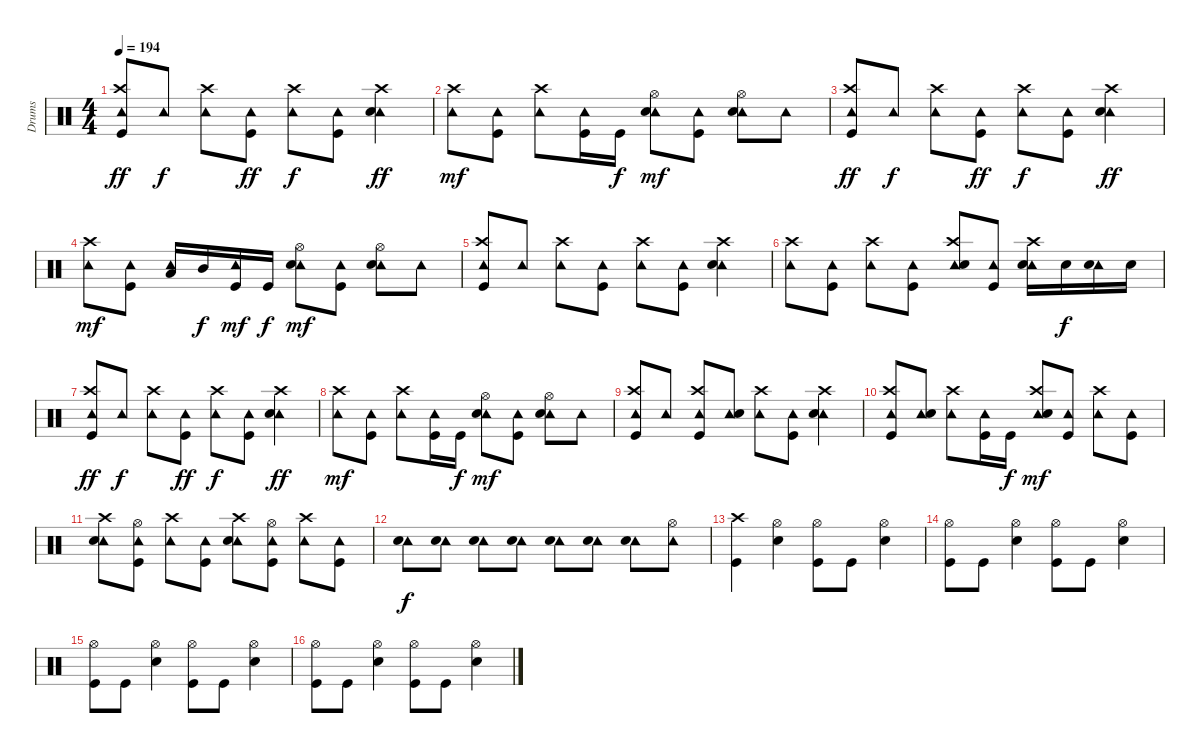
\track ("Drums" "Drums") {instrument percussion}
\staff {score}
\articulation defaults
\ts (4 4)
\tempo 194
\clef neutral
\ks c
("Tambourine (hit)" "Crash high (hit)" "Kick (hit)").8{dy ff} "Tambourine (hit)".8{dy f} ("Tambourine (hit)" "Crash high (hit)").8 ("Tambourine (hit)" "Kick (hit)").8{dy ff} ("Tambourine (hit)" "Crash high (hit)").8{dy f} ("Tambourine (hit)" "Kick (hit)").8 ("Tambourine (hit)" "Crash high (hit)" "Electric Snare (hit)").4{dy ff} |
("Tambourine (hit)" "Crash high (hit)").8{dy mf} ("Tambourine (hit)" "Kick (hit)").8 ("Tambourine (hit)" "Crash high (hit)").8 ("Tambourine (hit)" "Kick (hit)").16 "Kick (hit)".16{dy f} ("Tambourine (hit)" "Hi-Hat (open)" "Electric Snare (hit)").8{dy mf} ("Tambourine (hit)" "Kick (hit)").8 ("Tambourine (hit)" "Hi-Hat (open)" "Electric Snare (hit)").8 "Tambourine (hit)".8 |
("Tambourine (hit)" "Crash high (hit)" "Kick (hit)").8{dy ff} "Tambourine (hit)".8{dy f} ("Tambourine (hit)" "Crash high (hit)").8 ("Tambourine (hit)" "Kick (hit)").8{dy ff} ("Tambourine (hit)" "Crash high (hit)").8{dy f} ("Tambourine (hit)" "Kick (hit)").8 ("Tambourine (hit)" "Crash high (hit)" "Electric Snare (hit)").4{dy ff} |
("Tambourine (hit)" "Crash high (hit)").8{dy mf} ("Tambourine (hit)" "Kick (hit)").8 ("Tambourine (hit)" "Low Tom (hit)").16 "Mid Tom (hit)".16{dy f} ("Tambourine (hit)" "Kick (hit)").16{dy mf} "Kick (hit)".16{dy f} ("Tambourine (hit)" "Hi-Hat (open)" "Electric Snare (hit)").8{dy mf} ("Tambourine (hit)" "Kick (hit)").8 ("Tambourine (hit)" "Hi-Hat (open)" "Electric Snare (hit)").8 "Tambourine (hit)".8 |
("Tambourine (hit)" "Crash high (hit)" "Kick (hit)").8 "Tambourine (hit)".8 ("Tambourine (hit)" "Crash high (hit)").8 ("Tambourine (hit)" "Kick (hit)").8 ("Tambourine (hit)" "Crash high (hit)").8 ("Tambourine (hit)" "Kick (hit)").8 ("Tambourine (hit)" "Crash high (hit)" "Electric Snare (hit)").4 |
("Tambourine (hit)" "Crash high (hit)").8 ("Tambourine (hit)" "Kick (hit)").8 ("Tambourine (hit)" "Crash high (hit)").8 ("Tambourine (hit)" "Kick (hit)").8 ("Tambourine (hit)" "Crash high (hit)" "Electric Snare (hit)").8 ("Tambourine (hit)" "Kick (hit)").8 ("Tambourine (hit)" "Crash high (hit)" "Electric Snare (hit)").16 "Electric Snare (hit)".16{dy f} ("Tambourine (hit)" "Electric Snare (hit)").16 "Electric Snare (hit)".16 |
("Tambourine (hit)" "Crash high (hit)" "Kick (hit)").8{dy ff} "Tambourine (hit)".8{dy f} ("Tambourine (hit)" "Crash high (hit)").8 ("Tambourine (hit)" "Kick (hit)").8{dy ff} ("Tambourine (hit)" "Crash high (hit)").8{dy f} ("Tambourine (hit)" "Kick (hit)").8 ("Tambourine (hit)" "Crash high (hit)" "Electric Snare (hit)").4{dy ff} |
("Tambourine (hit)" "Crash high (hit)").8{dy mf} ("Tambourine (hit)" "Kick (hit)").8 ("Tambourine (hit)" "Crash high (hit)").8 ("Tambourine (hit)" "Kick (hit)").16 "Kick (hit)".16{dy f} ("Tambourine (hit)" "Hi-Hat (open)" "Electric Snare (hit)").8{dy mf} ("Tambourine (hit)" "Kick (hit)").8 ("Tambourine (hit)" "Hi-Hat (open)" "Electric Snare (hit)").8 "Tambourine (hit)".8 |
("Tambourine (hit)" "Crash high (hit)" "Kick (hit)").8 "Tambourine (hit)".8 ("Tambourine (hit)" "Crash high (hit)" "Kick (hit)").8 ("Tambourine (hit)" "Electric Snare (hit)").8 ("Tambourine (hit)" "Crash high (hit)").8 ("Tambourine (hit)" "Kick (hit)").8 ("Tambourine (hit)" "Crash high (hit)" "Electric Snare (hit)").4 |
("Tambourine (hit)" "Crash high (hit)" "Kick (hit)").8 ("Tambourine (hit)" "Electric Snare (hit)").8 ("Tambourine (hit)" "Crash high (hit)").8 ("Tambourine (hit)" "Kick (hit)").16 "Kick (hit)".16{dy f} ("Tambourine (hit)" "Crash high (hit)" "Electric Snare (hit)").8{dy mf} ("Tambourine (hit)" "Kick (hit)").8 ("Tambourine (hit)" "Crash high (hit)").8 ("Tambourine (hit)" "Kick (hit)").8 |
("Tambourine (hit)" "Crash high (hit)" "Electric Snare (hit)").8 ("Tambourine (hit)" "Hi-Hat (open)" "Kick (hit)").8 ("Tambourine (hit)" "Crash high (hit)").8 ("Tambourine (hit)" "Kick (hit)").8 ("Tambourine (hit)" "Crash high (hit)" "Electric Snare (hit)").8 ("Tambourine (hit)" "Hi-Hat (open)" "Kick (hit)").8 ("Tambourine (hit)" "Crash high (hit)").8 ("Tambourine (hit)" "Kick (hit)").8 |
("Tambourine (hit)" "Electric Snare (hit)").8{dy f} ("Tambourine (hit)" "Electric Snare (hit)").8 ("Tambourine (hit)" "Electric Snare (hit)").8 ("Tambourine (hit)" "Electric Snare (hit)").8 ("Tambourine (hit)" "Electric Snare (hit)").8 ("Tambourine (hit)" "Electric Snare (hit)").8 ("Tambourine (hit)" "Electric Snare (hit)").8 ("Tambourine (hit)" "Hi-Hat (open)").8 |
("Crash high (hit)" "Kick (hit)").4 ("Hi-Hat (open)" "Electric Snare (hit)").4 ("Hi-Hat (open)" "Kick (hit)").8 "Kick (hit)".8 ("Hi-Hat (open)" "Electric Snare (hit)").4 |
("Hi-Hat (open)" "Kick (hit)").8 "Kick (hit)".8 ("Hi-Hat (open)" "Electric Snare (hit)").4 ("Hi-Hat (open)" "Kick (hit)").8 "Kick (hit)".8 ("Hi-Hat (open)" "Electric Snare (hit)").4 |
("Hi-Hat (open)" "Kick (hit)").8 "Kick (hit)".8 ("Hi-Hat (open)" "Electric Snare (hit)").4 ("Hi-Hat (open)" "Kick (hit)").8 "Kick (hit)".8 ("Hi-Hat (open)" "Electric Snare (hit)").4 |
("Hi-Hat (open)" "Kick (hit)").8 "Kick (hit)".8 ("Hi-Hat (open)" "Electric Snare (hit)").4 ("Hi-Hat (open)" "Kick (hit)").8 "Kick (hit)".8 ("Hi-Hat (open)" "Electric Snare (hit)").4
